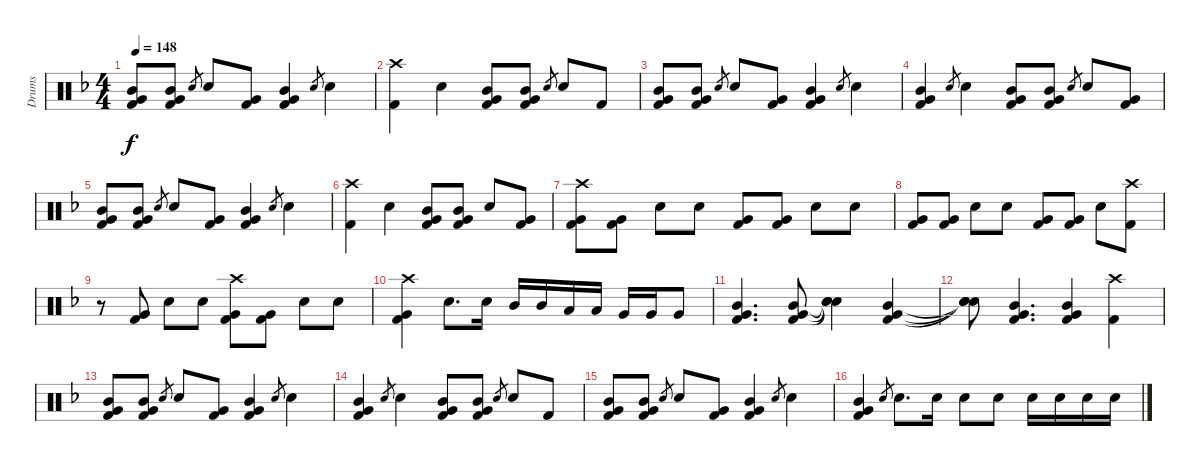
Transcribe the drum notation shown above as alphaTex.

\track ("Drums" "Drums") {instrument percussion}
\staff {score}
\articulation defaults
\ts (4 4)
\tempo 148
\clef neutral
\ks f
("Mid Tom (hit)" "Very Low Tom (hit)" "Kick (hit) 2").8{dy f} ("Mid Tom (hit)" "Very Low Tom (hit)" "Kick (hit) 2").8 "Snare (hit) 2".8{gr} "Snare (hit) 2".8 ("Very Low Tom (hit)" "Kick (hit) 2").8 ("Mid Tom (hit)" "Very Low Tom (hit)" "Kick (hit) 2").4 "Snare (hit) 2".8{gr} "Snare (hit) 2".4 |
("Crash high (hit)" "Kick (hit) 2").4 "Snare (hit) 2".4 ("Mid Tom (hit)" "Very Low Tom (hit)" "Kick (hit) 2").8 ("Mid Tom (hit)" "Very Low Tom (hit)" "Kick (hit) 2").8 "Snare (hit) 2".8{gr} "Snare (hit) 2".8 "Kick (hit) 2".8 |
("Mid Tom (hit)" "Very Low Tom (hit)" "Kick (hit) 2").8 ("Mid Tom (hit)" "Very Low Tom (hit)" "Kick (hit) 2").8 "Snare (hit) 2".8{gr} "Snare (hit) 2".8 ("Very Low Tom (hit)" "Kick (hit) 2").8 ("Mid Tom (hit)" "Very Low Tom (hit)" "Kick (hit) 2").4 "Snare (hit) 2".8{gr} "Snare (hit) 2".4 |
("Mid Tom (hit)" "Very Low Tom (hit)" "Kick (hit) 2").4 "Snare (hit) 2".8{gr} "Snare (hit) 2".4 ("Mid Tom (hit)" "Very Low Tom (hit)" "Kick (hit) 2").8 ("Mid Tom (hit)" "Very Low Tom (hit)" "Kick (hit) 2").8 "Snare (hit) 2".8{gr} "Snare (hit) 2".8 ("Very Low Tom (hit)" "Kick (hit) 2").8 |
("Mid Tom (hit)" "Very Low Tom (hit)" "Kick (hit) 2").8 ("Mid Tom (hit)" "Very Low Tom (hit)" "Kick (hit) 2").8 "Snare (hit) 2".8{gr} "Snare (hit) 2".8 ("Very Low Tom (hit)" "Kick (hit) 2").8 ("Mid Tom (hit)" "Very Low Tom (hit)" "Kick (hit) 2").4 "Snare (hit) 2".8{gr} "Snare (hit) 2".4 |
("Crash high (hit)" "Kick (hit) 2").4 "Snare (hit) 2".4 ("Mid Tom (hit)" "Very Low Tom (hit)" "Kick (hit) 2").8 ("Mid Tom (hit)" "Very Low Tom (hit)" "Kick (hit) 2").8 "Snare (hit) 2".8 ("Very Low Tom (hit)" "Kick (hit) 2").8 |
("Crash high (hit)" "Very Low Tom (hit)" "Kick (hit) 2").8 ("Very Low Tom (hit)" "Kick (hit) 2").8 "Snare (hit) 2".8 "Snare (hit) 2".8 ("Very Low Tom (hit)" "Kick (hit) 2").8 ("Very Low Tom (hit)" "Kick (hit) 2").8 "Snare (hit) 2".8 "Snare (hit) 2".8 |
("Very Low Tom (hit)" "Kick (hit) 2").8 ("Very Low Tom (hit)" "Kick (hit) 2").8 "Snare (hit) 2".8 "Snare (hit) 2".8 ("Very Low Tom (hit)" "Kick (hit) 2").8 ("Very Low Tom (hit)" "Kick (hit) 2").8 "Snare (hit) 2".8 ("Crash high (hit)" "Kick (hit) 2").8 |
r.8 ("Very Low Tom (hit)" "Kick (hit) 2").8 "Snare (hit) 2".8 "Snare (hit) 2".8 ("Crash high (hit)" "Very Low Tom (hit)" "Kick (hit) 2").8 ("Very Low Tom (hit)" "Kick (hit) 2").8 "Snare (hit) 2".8 "Snare (hit) 2".8 |
("Crash high (hit)" "Very Low Tom (hit)" "Kick (hit) 2").4 "Snare (hit) 2".8{d} "Snare (hit) 2".16 "Mid Tom (hit)".16 "Mid Tom (hit)".16 "Low Tom (hit)".16 "Low Tom (hit)".16 "Very Low Tom (hit)".16 "Very Low Tom (hit)".16 "Very Low Tom (hit)".8 |
("Mid Tom (hit)" "Very Low Tom (hit)" "Kick (hit) 2").4{d} ("Mid Tom (hit)" "Very Low Tom (hit)" "Kick (hit) 2").8 ("Snare (hit)"{t} "Snare (hit)"{t} "Snare (hit)"{t}).4 ("Mid Tom (hit)" "Very Low Tom (hit)" "Kick (hit) 2").4 |
("Snare (hit)"{t} "Snare (hit)"{t} "Snare (hit)"{t}).8 ("Mid Tom (hit)" "Very Low Tom (hit)" "Kick (hit) 2").4{d} ("Mid Tom (hit)" "Very Low Tom (hit)" "Kick (hit) 2").4 ("Crash high (hit)" "Kick (hit) 2").4 |
("Mid Tom (hit)" "Very Low Tom (hit)" "Kick (hit) 2").8 ("Mid Tom (hit)" "Very Low Tom (hit)" "Kick (hit) 2").8 "Snare (hit) 2".8{gr} "Snare (hit) 2".8 ("Very Low Tom (hit)" "Kick (hit) 2").8 ("Mid Tom (hit)" "Very Low Tom (hit)" "Kick (hit) 2").4 "Snare (hit) 2".8{gr} "Snare (hit) 2".4 |
("Mid Tom (hit)" "Very Low Tom (hit)" "Kick (hit) 2").4 "Snare (hit) 2".8{gr} "Snare (hit) 2".4 ("Mid Tom (hit)" "Very Low Tom (hit)" "Kick (hit) 2").8 ("Mid Tom (hit)" "Very Low Tom (hit)" "Kick (hit) 2").8 "Snare (hit) 2".8{gr} "Snare (hit) 2".8 "Kick (hit) 2".8 |
("Mid Tom (hit)" "Very Low Tom (hit)" "Kick (hit) 2").8 ("Mid Tom (hit)" "Very Low Tom (hit)" "Kick (hit) 2").8 "Snare (hit) 2".8{gr} "Snare (hit) 2".8 ("Very Low Tom (hit)" "Kick (hit) 2").8 ("Mid Tom (hit)" "Very Low Tom (hit)" "Kick (hit) 2").4 "Snare (hit) 2".8{gr} "Snare (hit) 2".4 |
("Mid Tom (hit)" "Very Low Tom (hit)" "Kick (hit) 2").4 "Snare (hit) 2".8{gr} "Snare (hit) 2".8{d} "Snare (hit) 2".16 "Snare (hit) 2".8 "Snare (hit) 2".8 "Snare (hit) 2".16 "Snare (hit) 2".16 "Snare (hit) 2".16 "Snare (hit) 2".16
